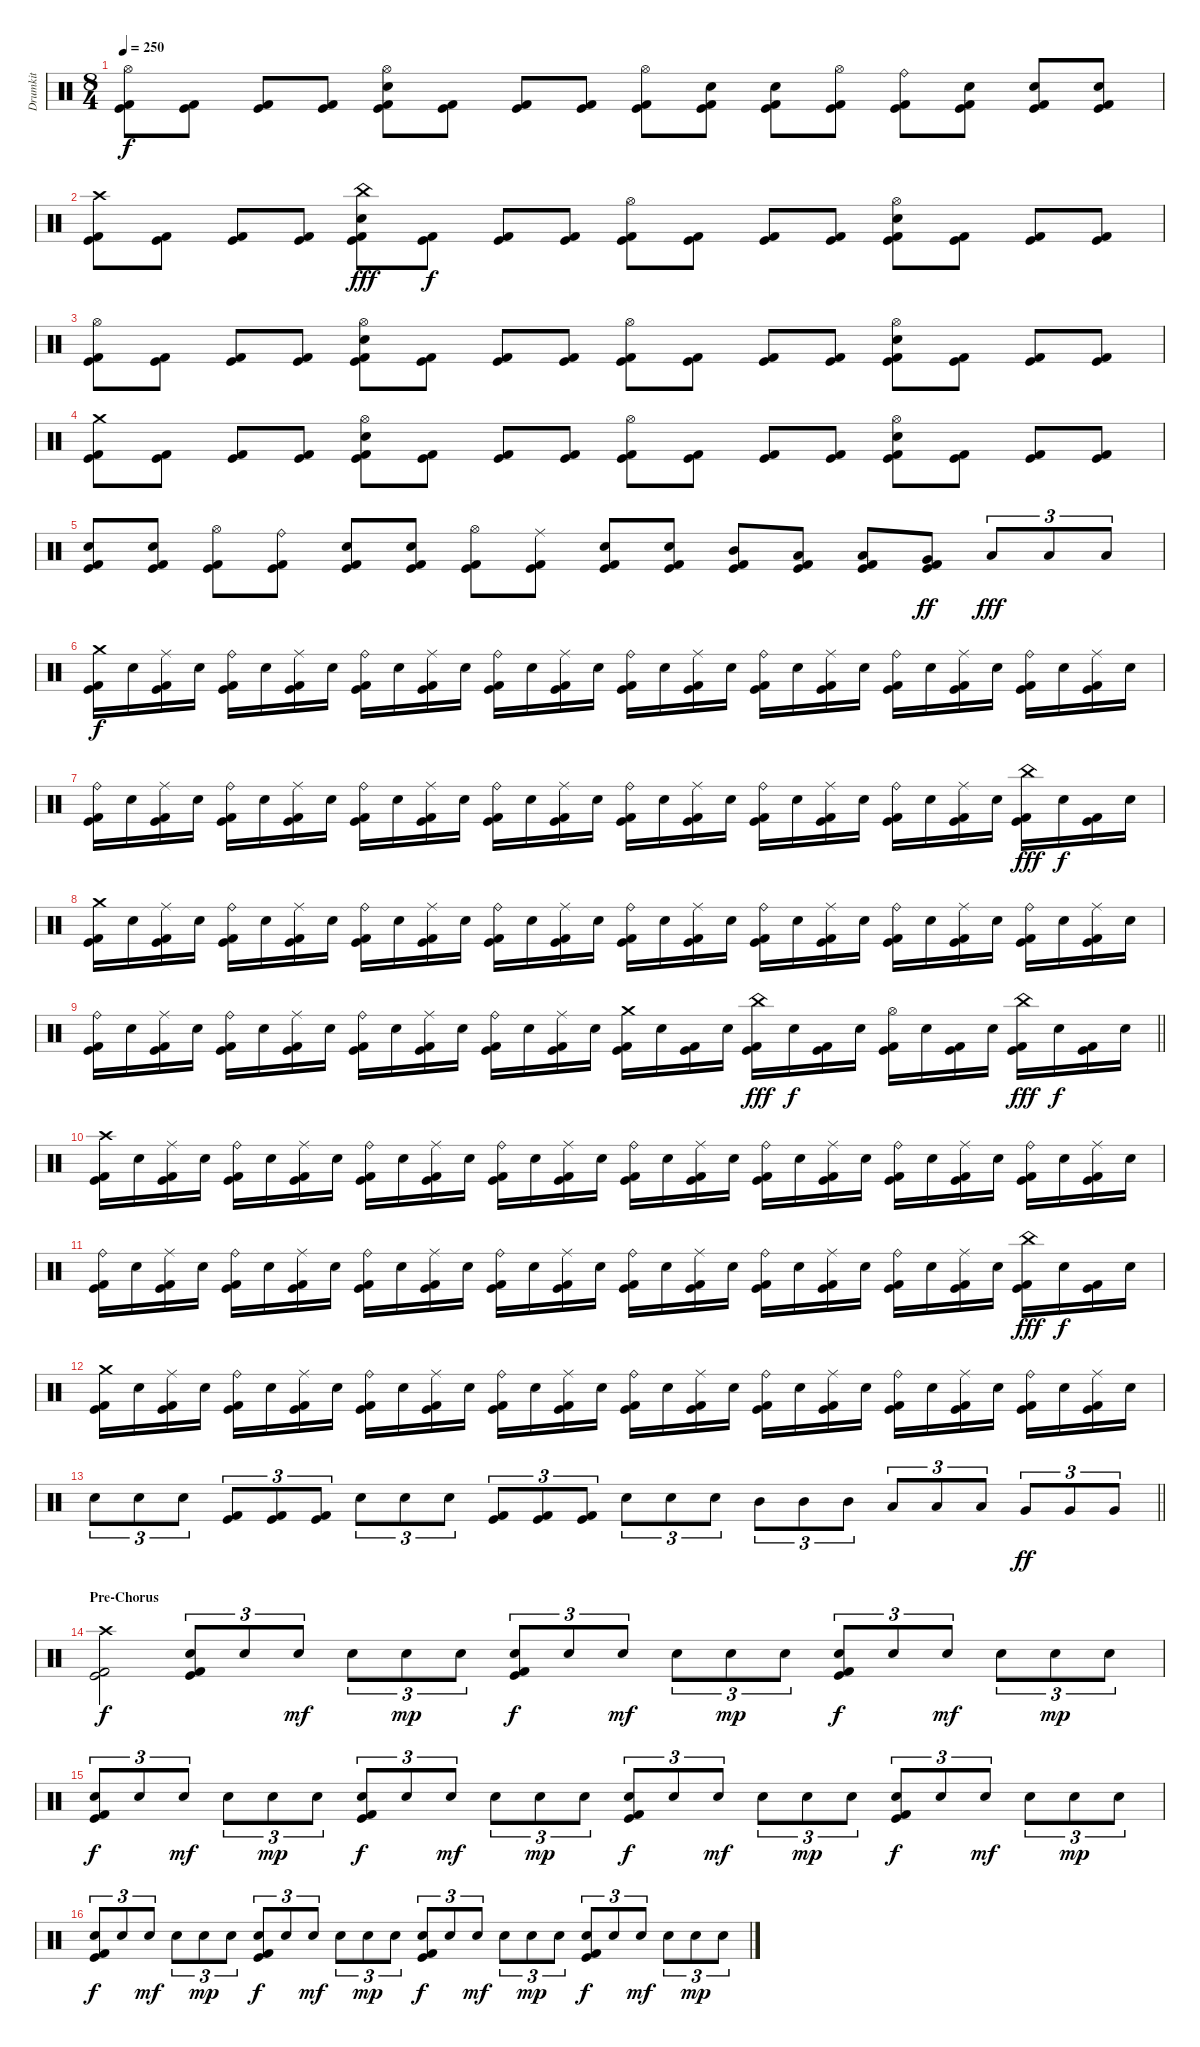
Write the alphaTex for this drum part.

\track ("Drumkit" "Drumkit") {instrument percussion}
\staff {score}
\articulation defaults
\ts (8 4)
\tempo 250
\clef neutral
\ks c
("Hi-Hat (open)" "Kick (hit)" "Kick (hit) 2").8{dy f} ("Kick (hit)" "Kick (hit) 2").8 ("Kick (hit)" "Kick (hit) 2").8 ("Kick (hit)" "Kick (hit) 2").8 ("Hi-Hat (open)" "Electric Snare (hit)" "Kick (hit)" "Kick (hit) 2").8 ("Kick (hit)" "Kick (hit) 2").8 ("Kick (hit)" "Kick (hit) 2").8 ("Kick (hit)" "Kick (hit) 2").8 ("Hi-Hat (open)" "Kick (hit)" "Kick (hit) 2").8 ("Electric Snare (hit)" "Kick (hit)" "Kick (hit) 2").8 ("Electric Snare (hit)" "Kick (hit)" "Kick (hit) 2").8 ("Hi-Hat (open)" "Kick (hit)" "Kick (hit) 2").8 ("Ride (bell)" "Kick (hit)" "Kick (hit) 2").8 ("Electric Snare (hit)" "Kick (hit)" "Kick (hit) 2").8 ("Electric Snare (hit)" "Kick (hit)" "Kick (hit) 2").8 ("Electric Snare (hit)" "Kick (hit)" "Kick (hit) 2").8 |
("Crash high (hit)" "Kick (hit)" "Kick (hit) 2").8 ("Kick (hit)" "Kick (hit) 2").8 ("Kick (hit)" "Kick (hit) 2").8 ("Kick (hit)" "Kick (hit) 2").8 ("China (hit)" "Electric Snare (hit)" "Kick (hit)" "Kick (hit) 2").8{dy fff} ("Kick (hit)" "Kick (hit) 2").8{dy f} ("Kick (hit)" "Kick (hit) 2").8 ("Kick (hit)" "Kick (hit) 2").8 ("Hi-Hat (open)" "Kick (hit)" "Kick (hit) 2").8 ("Kick (hit)" "Kick (hit) 2").8 ("Kick (hit)" "Kick (hit) 2").8 ("Kick (hit)" "Kick (hit) 2").8 ("Hi-Hat (open)" "Electric Snare (hit)" "Kick (hit)" "Kick (hit) 2").8 ("Kick (hit)" "Kick (hit) 2").8 ("Kick (hit)" "Kick (hit) 2").8 ("Kick (hit)" "Kick (hit) 2").8 |
("Hi-Hat (open)" "Kick (hit)" "Kick (hit) 2").8 ("Kick (hit)" "Kick (hit) 2").8 ("Kick (hit)" "Kick (hit) 2").8 ("Kick (hit)" "Kick (hit) 2").8 ("Hi-Hat (open)" "Electric Snare (hit)" "Kick (hit)" "Kick (hit) 2").8 ("Kick (hit)" "Kick (hit) 2").8 ("Kick (hit)" "Kick (hit) 2").8 ("Kick (hit)" "Kick (hit) 2").8 ("Hi-Hat (open)" "Kick (hit)" "Kick (hit) 2").8 ("Kick (hit)" "Kick (hit) 2").8 ("Kick (hit)" "Kick (hit) 2").8 ("Kick (hit)" "Kick (hit) 2").8 ("Hi-Hat (open)" "Electric Snare (hit)" "Kick (hit)" "Kick (hit) 2").8 ("Kick (hit)" "Kick (hit) 2").8 ("Kick (hit)" "Kick (hit) 2").8 ("Kick (hit)" "Kick (hit) 2").8 |
("Crash medium (hit)" "Kick (hit)" "Kick (hit) 2").8 ("Kick (hit)" "Kick (hit) 2").8 ("Kick (hit)" "Kick (hit) 2").8 ("Kick (hit)" "Kick (hit) 2").8 ("Hi-Hat (open)" "Electric Snare (hit)" "Kick (hit)" "Kick (hit) 2").8 ("Kick (hit)" "Kick (hit) 2").8 ("Kick (hit)" "Kick (hit) 2").8 ("Kick (hit)" "Kick (hit) 2").8 ("Hi-Hat (open)" "Kick (hit)" "Kick (hit) 2").8 ("Kick (hit)" "Kick (hit) 2").8 ("Kick (hit)" "Kick (hit) 2").8 ("Kick (hit)" "Kick (hit) 2").8 ("Hi-Hat (open)" "Electric Snare (hit)" "Kick (hit)" "Kick (hit) 2").8 ("Kick (hit)" "Kick (hit) 2").8 ("Kick (hit)" "Kick (hit) 2").8 ("Kick (hit)" "Kick (hit) 2").8 |
("Electric Snare (hit)" "Kick (hit)" "Kick (hit) 2").8 ("Electric Snare (hit)" "Kick (hit)" "Kick (hit) 2").8 ("Hi-Hat (open)" "Kick (hit)" "Kick (hit) 2").8 ("Ride (bell)" "Kick (hit)" "Kick (hit) 2").8 ("Electric Snare (hit)" "Kick (hit)" "Kick (hit) 2").8 ("Electric Snare (hit)" "Kick (hit)" "Kick (hit) 2").8 ("Hi-Hat (open)" "Kick (hit)" "Kick (hit) 2").8 ("Ride (middle)" "Kick (hit)" "Kick (hit) 2").8 ("Electric Snare (hit)" "Kick (hit)" "Kick (hit) 2").8 ("Electric Snare (hit)" "Kick (hit)" "Kick (hit) 2").8 ("Mid Tom (hit)" "Kick (hit)" "Kick (hit) 2").8 ("Low Tom (hit)" "Kick (hit)" "Kick (hit) 2").8 ("Low Tom (hit)" "Kick (hit)" "Kick (hit) 2").8 ("Very Low Tom (hit)" "Kick (hit)" "Kick (hit) 2").8{dy ff} "Low Floor Tom (hit)".8{tu (3 2) dy fff} "Low Floor Tom (hit)".8{tu (3 2)} "Low Floor Tom (hit)".8{tu (3 2)} |
("Crash medium (hit)" "Kick (hit)" "Kick (hit) 2").16{dy f} "Electric Snare (hit)".16 ("Ride (middle)" "Kick (hit)" "Kick (hit) 2").16 "Electric Snare (hit)".16 ("Ride (bell)" "Kick (hit)" "Kick (hit) 2").16 "Electric Snare (hit)".16 ("Ride (middle)" "Kick (hit)" "Kick (hit) 2").16 "Electric Snare (hit)".16 ("Ride (bell)" "Kick (hit)" "Kick (hit) 2").16 "Electric Snare (hit)".16 ("Ride (middle)" "Kick (hit)" "Kick (hit) 2").16 "Electric Snare (hit)".16 ("Ride (bell)" "Kick (hit)" "Kick (hit) 2").16 "Electric Snare (hit)".16 ("Ride (middle)" "Kick (hit)" "Kick (hit) 2").16 "Electric Snare (hit)".16 ("Ride (bell)" "Kick (hit)" "Kick (hit) 2").16 "Electric Snare (hit)".16 ("Ride (middle)" "Kick (hit)" "Kick (hit) 2").16 "Electric Snare (hit)".16 ("Ride (bell)" "Kick (hit)" "Kick (hit) 2").16 "Electric Snare (hit)".16 ("Ride (middle)" "Kick (hit)" "Kick (hit) 2").16 "Electric Snare (hit)".16 ("Ride (bell)" "Kick (hit)" "Kick (hit) 2").16 "Electric Snare (hit)".16 ("Ride (middle)" "Kick (hit)" "Kick (hit) 2").16 "Electric Snare (hit)".16 ("Ride (bell)" "Kick (hit)" "Kick (hit) 2").16 "Electric Snare (hit)".16 ("Ride (middle)" "Kick (hit)" "Kick (hit) 2").16 "Electric Snare (hit)".16 |
("Ride (bell)" "Kick (hit)" "Kick (hit) 2").16 "Electric Snare (hit)".16 ("Ride (middle)" "Kick (hit)" "Kick (hit) 2").16 "Electric Snare (hit)".16 ("Ride (bell)" "Kick (hit)" "Kick (hit) 2").16 "Electric Snare (hit)".16 ("Ride (middle)" "Kick (hit)" "Kick (hit) 2").16 "Electric Snare (hit)".16 ("Ride (bell)" "Kick (hit)" "Kick (hit) 2").16 "Electric Snare (hit)".16 ("Ride (middle)" "Kick (hit)" "Kick (hit) 2").16 "Electric Snare (hit)".16 ("Ride (bell)" "Kick (hit)" "Kick (hit) 2").16 "Electric Snare (hit)".16 ("Ride (middle)" "Kick (hit)" "Kick (hit) 2").16 "Electric Snare (hit)".16 ("Ride (bell)" "Kick (hit)" "Kick (hit) 2").16 "Electric Snare (hit)".16 ("Ride (middle)" "Kick (hit)" "Kick (hit) 2").16 "Electric Snare (hit)".16 ("Ride (bell)" "Kick (hit)" "Kick (hit) 2").16 "Electric Snare (hit)".16 ("Ride (middle)" "Kick (hit)" "Kick (hit) 2").16 "Electric Snare (hit)".16 ("Ride (bell)" "Kick (hit)" "Kick (hit) 2").16 "Electric Snare (hit)".16 ("Ride (middle)" "Kick (hit)" "Kick (hit) 2").16 "Electric Snare (hit)".16 ("China (hit)" "Kick (hit)" "Kick (hit) 2").16{dy fff} "Electric Snare (hit)".16{dy f} ("Kick (hit)" "Kick (hit) 2").16 "Electric Snare (hit)".16 |
("Crash medium (hit)" "Kick (hit)" "Kick (hit) 2").16 "Electric Snare (hit)".16 ("Ride (middle)" "Kick (hit)" "Kick (hit) 2").16 "Electric Snare (hit)".16 ("Ride (bell)" "Kick (hit)" "Kick (hit) 2").16 "Electric Snare (hit)".16 ("Ride (middle)" "Kick (hit)" "Kick (hit) 2").16 "Electric Snare (hit)".16 ("Ride (bell)" "Kick (hit)" "Kick (hit) 2").16 "Electric Snare (hit)".16 ("Ride (middle)" "Kick (hit)" "Kick (hit) 2").16 "Electric Snare (hit)".16 ("Ride (bell)" "Kick (hit)" "Kick (hit) 2").16 "Electric Snare (hit)".16 ("Ride (middle)" "Kick (hit)" "Kick (hit) 2").16 "Electric Snare (hit)".16 ("Ride (bell)" "Kick (hit)" "Kick (hit) 2").16 "Electric Snare (hit)".16 ("Ride (middle)" "Kick (hit)" "Kick (hit) 2").16 "Electric Snare (hit)".16 ("Ride (bell)" "Kick (hit)" "Kick (hit) 2").16 "Electric Snare (hit)".16 ("Ride (middle)" "Kick (hit)" "Kick (hit) 2").16 "Electric Snare (hit)".16 ("Ride (bell)" "Kick (hit)" "Kick (hit) 2").16 "Electric Snare (hit)".16 ("Ride (middle)" "Kick (hit)" "Kick (hit) 2").16 "Electric Snare (hit)".16 ("Ride (bell)" "Kick (hit)" "Kick (hit) 2").16 "Electric Snare (hit)".16 ("Ride (middle)" "Kick (hit)" "Kick (hit) 2").16 "Electric Snare (hit)".16 |
\barLineRight lightlight
("Ride (bell)" "Kick (hit)" "Kick (hit) 2").16 "Electric Snare (hit)".16 ("Ride (middle)" "Kick (hit)" "Kick (hit) 2").16 "Electric Snare (hit)".16 ("Ride (bell)" "Kick (hit)" "Kick (hit) 2").16 "Electric Snare (hit)".16 ("Ride (middle)" "Kick (hit)" "Kick (hit) 2").16 "Electric Snare (hit)".16 ("Ride (bell)" "Kick (hit)" "Kick (hit) 2").16 "Electric Snare (hit)".16 ("Ride (middle)" "Kick (hit)" "Kick (hit) 2").16 "Electric Snare (hit)".16 ("Ride (bell)" "Kick (hit)" "Kick (hit) 2").16 "Electric Snare (hit)".16 ("Ride (middle)" "Kick (hit)" "Kick (hit) 2").16 "Electric Snare (hit)".16 ("Crash medium (hit)" "Kick (hit)" "Kick (hit) 2").16 "Electric Snare (hit)".16 ("Kick (hit)" "Kick (hit) 2").16 "Electric Snare (hit)".16 ("China (hit)" "Kick (hit)" "Kick (hit) 2").16{dy fff} "Electric Snare (hit)".16{dy f} ("Kick (hit)" "Kick (hit) 2").16 "Electric Snare (hit)".16 ("Hi-Hat (open)" "Kick (hit)" "Kick (hit) 2").16 "Electric Snare (hit)".16 ("Kick (hit)" "Kick (hit) 2").16 "Electric Snare (hit)".16 ("China (hit)" "Kick (hit)" "Kick (hit) 2").16{dy fff} "Electric Snare (hit)".16{dy f} ("Kick (hit)" "Kick (hit) 2").16 "Electric Snare (hit)".16 |
("Crash high (hit)" "Kick (hit)" "Kick (hit) 2").16 "Electric Snare (hit)".16 ("Ride (middle)" "Kick (hit)" "Kick (hit) 2").16 "Electric Snare (hit)".16 ("Ride (bell)" "Kick (hit)" "Kick (hit) 2").16 "Electric Snare (hit)".16 ("Ride (middle)" "Kick (hit)" "Kick (hit) 2").16 "Electric Snare (hit)".16 ("Ride (bell)" "Kick (hit)" "Kick (hit) 2").16 "Electric Snare (hit)".16 ("Ride (middle)" "Kick (hit)" "Kick (hit) 2").16 "Electric Snare (hit)".16 ("Ride (bell)" "Kick (hit)" "Kick (hit) 2").16 "Electric Snare (hit)".16 ("Ride (middle)" "Kick (hit)" "Kick (hit) 2").16 "Electric Snare (hit)".16 ("Ride (bell)" "Kick (hit)" "Kick (hit) 2").16 "Electric Snare (hit)".16 ("Ride (middle)" "Kick (hit)" "Kick (hit) 2").16 "Electric Snare (hit)".16 ("Ride (bell)" "Kick (hit)" "Kick (hit) 2").16 "Electric Snare (hit)".16 ("Ride (middle)" "Kick (hit)" "Kick (hit) 2").16 "Electric Snare (hit)".16 ("Ride (bell)" "Kick (hit)" "Kick (hit) 2").16 "Electric Snare (hit)".16 ("Ride (middle)" "Kick (hit)" "Kick (hit) 2").16 "Electric Snare (hit)".16 ("Ride (bell)" "Kick (hit)" "Kick (hit) 2").16 "Electric Snare (hit)".16 ("Ride (middle)" "Kick (hit)" "Kick (hit) 2").16 "Electric Snare (hit)".16 |
("Ride (bell)" "Kick (hit)" "Kick (hit) 2").16 "Electric Snare (hit)".16 ("Ride (middle)" "Kick (hit)" "Kick (hit) 2").16 "Electric Snare (hit)".16 ("Ride (bell)" "Kick (hit)" "Kick (hit) 2").16 "Electric Snare (hit)".16 ("Ride (middle)" "Kick (hit)" "Kick (hit) 2").16 "Electric Snare (hit)".16 ("Ride (bell)" "Kick (hit)" "Kick (hit) 2").16 "Electric Snare (hit)".16 ("Ride (middle)" "Kick (hit)" "Kick (hit) 2").16 "Electric Snare (hit)".16 ("Ride (bell)" "Kick (hit)" "Kick (hit) 2").16 "Electric Snare (hit)".16 ("Ride (middle)" "Kick (hit)" "Kick (hit) 2").16 "Electric Snare (hit)".16 ("Ride (bell)" "Kick (hit)" "Kick (hit) 2").16 "Electric Snare (hit)".16 ("Ride (middle)" "Kick (hit)" "Kick (hit) 2").16 "Electric Snare (hit)".16 ("Ride (bell)" "Kick (hit)" "Kick (hit) 2").16 "Electric Snare (hit)".16 ("Ride (middle)" "Kick (hit)" "Kick (hit) 2").16 "Electric Snare (hit)".16 ("Ride (bell)" "Kick (hit)" "Kick (hit) 2").16 "Electric Snare (hit)".16 ("Ride (middle)" "Kick (hit)" "Kick (hit) 2").16 "Electric Snare (hit)".16 ("China (hit)" "Kick (hit)" "Kick (hit) 2").16{dy fff} "Electric Snare (hit)".16{dy f} ("Kick (hit)" "Kick (hit) 2").16 "Electric Snare (hit)".16 |
("Crash medium (hit)" "Kick (hit)" "Kick (hit) 2").16 "Electric Snare (hit)".16 ("Ride (middle)" "Kick (hit)" "Kick (hit) 2").16 "Electric Snare (hit)".16 ("Ride (bell)" "Kick (hit)" "Kick (hit) 2").16 "Electric Snare (hit)".16 ("Ride (middle)" "Kick (hit)" "Kick (hit) 2").16 "Electric Snare (hit)".16 ("Ride (bell)" "Kick (hit)" "Kick (hit) 2").16 "Electric Snare (hit)".16 ("Ride (middle)" "Kick (hit)" "Kick (hit) 2").16 "Electric Snare (hit)".16 ("Ride (bell)" "Kick (hit)" "Kick (hit) 2").16 "Electric Snare (hit)".16 ("Ride (middle)" "Kick (hit)" "Kick (hit) 2").16 "Electric Snare (hit)".16 ("Ride (bell)" "Kick (hit)" "Kick (hit) 2").16 "Electric Snare (hit)".16 ("Ride (middle)" "Kick (hit)" "Kick (hit) 2").16 "Electric Snare (hit)".16 ("Ride (bell)" "Kick (hit)" "Kick (hit) 2").16 "Electric Snare (hit)".16 ("Ride (middle)" "Kick (hit)" "Kick (hit) 2").16 "Electric Snare (hit)".16 ("Ride (bell)" "Kick (hit)" "Kick (hit) 2").16 "Electric Snare (hit)".16 ("Ride (middle)" "Kick (hit)" "Kick (hit) 2").16 "Electric Snare (hit)".16 ("Ride (bell)" "Kick (hit)" "Kick (hit) 2").16 "Electric Snare (hit)".16 ("Ride (middle)" "Kick (hit)" "Kick (hit) 2").16 "Electric Snare (hit)".16 |
\barLineRight lightlight "Electric Snare (hit)".8{tu (3 2)} "Electric Snare (hit)".8{tu (3 2)} "Electric Snare (hit)".8{tu (3 2)}
("Kick (hit)" "Kick (hit) 2").8{tu (3 2)} ("Kick (hit)" "Kick (hit) 2").8{tu (3 2)} ("Kick (hit)" "Kick (hit) 2").8{tu (3 2)} "Electric Snare (hit)".8{tu (3 2)} "Electric Snare (hit)".8{tu (3 2)} "Electric Snare (hit)".8{tu (3 2)} ("Kick (hit)" "Kick (hit) 2").8{tu (3 2)} ("Kick (hit)" "Kick (hit) 2").8{tu (3 2)} ("Kick (hit)" "Kick (hit) 2").8{tu (3 2)} "Electric Snare (hit)".8{tu (3 2)} "Electric Snare (hit)".8{tu (3 2)} "Electric Snare (hit)".8{tu (3 2)} "Mid Tom (hit)".8{tu (3 2)} "Mid Tom (hit)".8{tu (3 2)} "Mid Tom (hit)".8{tu (3 2)} "Low Tom (hit)".8{tu (3 2)} "Low Tom (hit)".8{tu (3 2)} "Low Tom (hit)".8{tu (3 2)} "Very Low Tom (hit)".8{tu (3 2) dy ff} "Very Low Tom (hit)".8{tu (3 2)} "Very Low Tom (hit)".8{tu (3 2)} |
\section ("" "Pre-Chorus")
("Crash high (hit)" "Kick (hit)" "Kick (hit) 2").2{dy f} ("Electric Snare (hit)" "Kick (hit)" "Kick (hit) 2").8{tu (3 2)} "Electric Snare (hit)".8{tu (3 2)} "Electric Snare (hit)".8{tu (3 2) dy mf} "Electric Snare (hit)".8{tu (3 2)} "Electric Snare (hit)".8{tu (3 2) dy mp} "Electric Snare (hit)".8{tu (3 2)} ("Electric Snare (hit)" "Kick (hit)" "Kick (hit) 2").8{tu (3 2) dy f} "Electric Snare (hit)".8{tu (3 2)} "Electric Snare (hit)".8{tu (3 2) dy mf} "Electric Snare (hit)".8{tu (3 2)} "Electric Snare (hit)".8{tu (3 2) dy mp} "Electric Snare (hit)".8{tu (3 2)} ("Electric Snare (hit)" "Kick (hit)" "Kick (hit) 2").8{tu (3 2) dy f} "Electric Snare (hit)".8{tu (3 2)} "Electric Snare (hit)".8{tu (3 2) dy mf} "Electric Snare (hit)".8{tu (3 2)} "Electric Snare (hit)".8{tu (3 2) dy mp} "Electric Snare (hit)".8{tu (3 2)} |
("Electric Snare (hit)" "Kick (hit)" "Kick (hit) 2").8{tu (3 2) dy f} "Electric Snare (hit)".8{tu (3 2)} "Electric Snare (hit)".8{tu (3 2) dy mf} "Electric Snare (hit)".8{tu (3 2)} "Electric Snare (hit)".8{tu (3 2) dy mp} "Electric Snare (hit)".8{tu (3 2)} ("Electric Snare (hit)" "Kick (hit)" "Kick (hit) 2").8{tu (3 2) dy f} "Electric Snare (hit)".8{tu (3 2)} "Electric Snare (hit)".8{tu (3 2) dy mf} "Electric Snare (hit)".8{tu (3 2)} "Electric Snare (hit)".8{tu (3 2) dy mp} "Electric Snare (hit)".8{tu (3 2)} ("Electric Snare (hit)" "Kick (hit)" "Kick (hit) 2").8{tu (3 2) dy f} "Electric Snare (hit)".8{tu (3 2)} "Electric Snare (hit)".8{tu (3 2) dy mf} "Electric Snare (hit)".8{tu (3 2)} "Electric Snare (hit)".8{tu (3 2) dy mp} "Electric Snare (hit)".8{tu (3 2)} ("Electric Snare (hit)" "Kick (hit)" "Kick (hit) 2").8{tu (3 2) dy f} "Electric Snare (hit)".8{tu (3 2)} "Electric Snare (hit)".8{tu (3 2) dy mf} "Electric Snare (hit)".8{tu (3 2)} "Electric Snare (hit)".8{tu (3 2) dy mp} "Electric Snare (hit)".8{tu (3 2)} |
("Electric Snare (hit)" "Kick (hit)" "Kick (hit) 2").8{tu (3 2) dy f} "Electric Snare (hit)".8{tu (3 2)} "Electric Snare (hit)".8{tu (3 2) dy mf} "Electric Snare (hit)".8{tu (3 2)} "Electric Snare (hit)".8{tu (3 2) dy mp} "Electric Snare (hit)".8{tu (3 2)} ("Electric Snare (hit)" "Kick (hit)" "Kick (hit) 2").8{tu (3 2) dy f} "Electric Snare (hit)".8{tu (3 2)} "Electric Snare (hit)".8{tu (3 2) dy mf} "Electric Snare (hit)".8{tu (3 2)} "Electric Snare (hit)".8{tu (3 2) dy mp} "Electric Snare (hit)".8{tu (3 2)} ("Electric Snare (hit)" "Kick (hit)" "Kick (hit) 2").8{tu (3 2) dy f} "Electric Snare (hit)".8{tu (3 2)} "Electric Snare (hit)".8{tu (3 2) dy mf} "Electric Snare (hit)".8{tu (3 2)} "Electric Snare (hit)".8{tu (3 2) dy mp} "Electric Snare (hit)".8{tu (3 2)} ("Electric Snare (hit)" "Kick (hit)" "Kick (hit) 2").8{tu (3 2) dy f} "Electric Snare (hit)".8{tu (3 2)} "Electric Snare (hit)".8{tu (3 2) dy mf} "Electric Snare (hit)".8{tu (3 2)} "Electric Snare (hit)".8{tu (3 2) dy mp} "Electric Snare (hit)".8{tu (3 2)}
